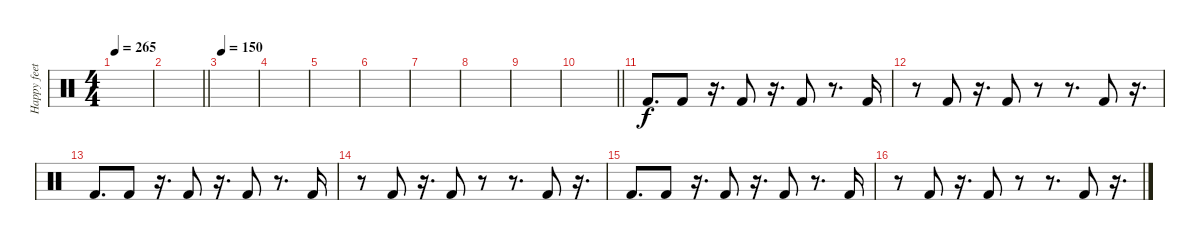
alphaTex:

\track ("Happy feet" "Happy feet") {instrument percussion}
\staff {score}
\articulation defaults
\ts (4 4)
\tempo 265
\clef neutral
\ks c
|
\barLineRight lightlight
|
\tempo 150
|
|
|
|
|
|
|
\barLineRight lightlight
|
"Kick (hit) 2".8{d} "Kick (hit) 2".8 r.16{d} "Kick (hit) 2".8 r.16{d} "Kick (hit) 2".8 r.8{d} "Kick (hit) 2".16 |
r.8 "Kick (hit) 2".8 r.16{d} "Kick (hit) 2".8 r.8 r.8{d} "Kick (hit) 2".8 r.16{d} |
"Kick (hit) 2".8{d} "Kick (hit) 2".8 r.16{d} "Kick (hit) 2".8 r.16{d} "Kick (hit) 2".8 r.8{d} "Kick (hit) 2".16 |
r.8 "Kick (hit) 2".8 r.16{d} "Kick (hit) 2".8 r.8 r.8{d} "Kick (hit) 2".8 r.16{d} |
"Kick (hit) 2".8{d} "Kick (hit) 2".8 r.16{d} "Kick (hit) 2".8 r.16{d} "Kick (hit) 2".8 r.8{d} "Kick (hit) 2".16 |
r.8 "Kick (hit) 2".8 r.16{d} "Kick (hit) 2".8 r.8 r.8{d} "Kick (hit) 2".8 r.16{d}
